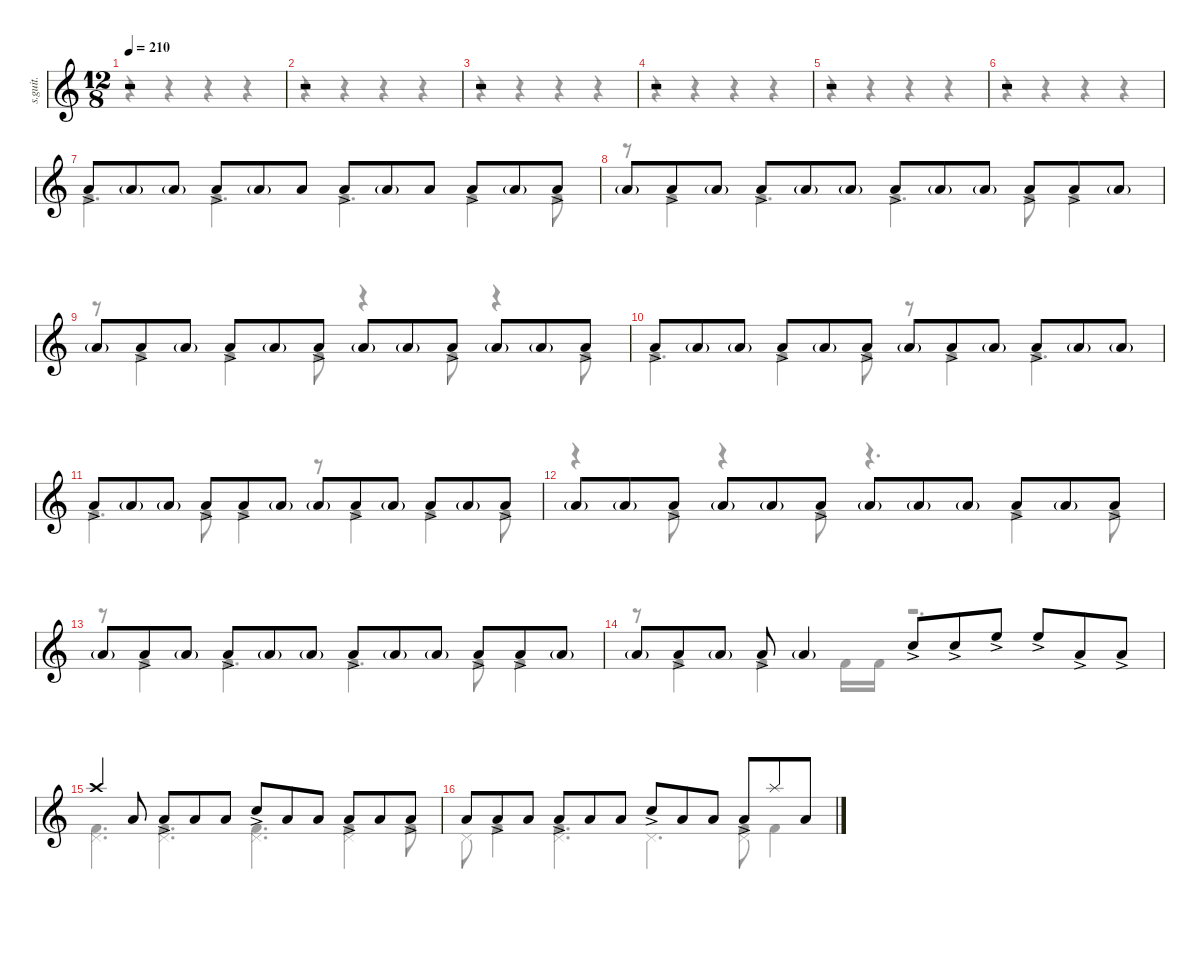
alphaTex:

\defaultSystemsLayout 4
\hideDynamics
\bracketExtendMode nobrackets
\track ("Percussion" "s.guit.") {instrument percussion}
\staff {score}
\articulation defaults
\voice
\ts (12 8)
\tempo 210
\clef g2
\ks c
r.2{dy mp} |
r.2 |
r.2 |
r.2 |
r.2 |
r.2 |
"Low Tom (hit)"{ac}.8{lyrics (0 "") lyrics (1 "") lyrics (2 "") lyrics (3 "") lyrics (4 "")} "Low Tom (hit)"{g}.8{lyrics (0 "") lyrics (1 "") lyrics (2 "") lyrics (3 "") lyrics (4 "") dy f} "Low Tom (hit)"{g}.8{lyrics (0 "") lyrics (1 "") lyrics (2 "") lyrics (3 "") lyrics (4 "")} "Low Tom (hit)"{ac}.8{lyrics (0 "") lyrics (1 "") lyrics (2 "") lyrics (3 "") lyrics (4 "") dy mp} "Low Tom (hit)"{g}.8{lyrics (0 "") lyrics (1 "") lyrics (2 "") lyrics (3 "") lyrics (4 "") dy f} "Low Tom (hit)".8{lyrics (0 "") lyrics (1 "") lyrics (2 "") lyrics (3 "") lyrics (4 "") dy mf} "Low Tom (hit)"{ac}.8{lyrics (0 "") lyrics (1 "") lyrics (2 "") lyrics (3 "") lyrics (4 "") dy mp} "Low Tom (hit)"{g}.8{lyrics (0 "") lyrics (1 "") lyrics (2 "") lyrics (3 "") lyrics (4 "") dy f} "Low Tom (hit)".8{lyrics (0 "") lyrics (1 "") lyrics (2 "") lyrics (3 "") lyrics (4 "") dy mf} "Low Tom (hit)"{ac}.8{lyrics (0 "") lyrics (1 "") lyrics (2 "") lyrics (3 "") lyrics (4 "") dy mp} "Low Tom (hit)"{g}.8{lyrics (0 "") lyrics (1 "") lyrics (2 "") lyrics (3 "") lyrics (4 "") dy f} "Low Tom (hit)"{ac}.8{lyrics (0 "") lyrics (1 "") lyrics (2 "") lyrics (3 "") lyrics (4 "") dy mp} |
"Low Tom (hit)"{g}.8{lyrics (0 "") lyrics (1 "") lyrics (2 "") lyrics (3 "") lyrics (4 "") dy f} "Low Tom (hit)"{ac}.8{lyrics (0 "") lyrics (1 "") lyrics (2 "") lyrics (3 "") lyrics (4 "") dy mp} "Low Tom (hit)"{g}.8{lyrics (0 "") lyrics (1 "") lyrics (2 "") lyrics (3 "") lyrics (4 "") dy f} "Low Tom (hit)"{ac}.8{lyrics (0 "") lyrics (1 "") lyrics (2 "") lyrics (3 "") lyrics (4 "") dy mp} "Low Tom (hit)"{g}.8{lyrics (0 "") lyrics (1 "") lyrics (2 "") lyrics (3 "") lyrics (4 "") dy f} "Low Tom (hit)"{g}.8{lyrics (0 "") lyrics (1 "") lyrics (2 "") lyrics (3 "") lyrics (4 "")} "Low Tom (hit)"{ac}.8{lyrics (0 "") lyrics (1 "") lyrics (2 "") lyrics (3 "") lyrics (4 "") dy mp} "Low Tom (hit)"{g}.8{lyrics (0 "") lyrics (1 "") lyrics (2 "") lyrics (3 "") lyrics (4 "") dy f} "Low Tom (hit)"{g}.8{lyrics (0 "") lyrics (1 "") lyrics (2 "") lyrics (3 "") lyrics (4 "")} "Low Tom (hit)"{ac}.8{lyrics (0 "") lyrics (1 "") lyrics (2 "") lyrics (3 "") lyrics (4 "") dy mp} "Low Tom (hit)"{ac}.8{lyrics (0 "") lyrics (1 "") lyrics (2 "") lyrics (3 "") lyrics (4 "")} "Low Tom (hit)"{g}.8{lyrics (0 "") lyrics (1 "") lyrics (2 "") lyrics (3 "") lyrics (4 "") dy f} |
"Low Tom (hit)"{g}.8{lyrics (0 "") lyrics (1 "") lyrics (2 "") lyrics (3 "") lyrics (4 "")} "Low Tom (hit)"{ac}.8{lyrics (0 "") lyrics (1 "") lyrics (2 "") lyrics (3 "") lyrics (4 "") dy mp} "Low Tom (hit)"{g}.8{lyrics (0 "") lyrics (1 "") lyrics (2 "") lyrics (3 "") lyrics (4 "") dy f} "Low Tom (hit)"{ac}.8{lyrics (0 "") lyrics (1 "") lyrics (2 "") lyrics (3 "") lyrics (4 "") dy mp} "Low Tom (hit)"{g}.8{lyrics (0 "") lyrics (1 "") lyrics (2 "") lyrics (3 "") lyrics (4 "") dy f} "Low Tom (hit)"{ac}.8{lyrics (0 "") lyrics (1 "") lyrics (2 "") lyrics (3 "") lyrics (4 "") dy mp} "Low Tom (hit)"{g}.8{lyrics (0 "") lyrics (1 "") lyrics (2 "") lyrics (3 "") lyrics (4 "") dy f} "Low Tom (hit)"{g}.8{lyrics (0 "") lyrics (1 "") lyrics (2 "") lyrics (3 "") lyrics (4 "")} "Low Tom (hit)"{ac}.8{lyrics (0 "") lyrics (1 "") lyrics (2 "") lyrics (3 "") lyrics (4 "") dy mp} "Low Tom (hit)"{g}.8{lyrics (0 "") lyrics (1 "") lyrics (2 "") lyrics (3 "") lyrics (4 "") dy f} "Low Tom (hit)"{g}.8{lyrics (0 "") lyrics (1 "") lyrics (2 "") lyrics (3 "") lyrics (4 "")} "Low Tom (hit)"{ac}.8{lyrics (0 "") lyrics (1 "") lyrics (2 "") lyrics (3 "") lyrics (4 "") dy mp} |
"Low Tom (hit)"{ac}.8{lyrics (0 "") lyrics (1 "") lyrics (2 "") lyrics (3 "") lyrics (4 "")} "Low Tom (hit)"{g}.8{lyrics (0 "") lyrics (1 "") lyrics (2 "") lyrics (3 "") lyrics (4 "") dy f} "Low Tom (hit)"{g}.8{lyrics (0 "") lyrics (1 "") lyrics (2 "") lyrics (3 "") lyrics (4 "")} "Low Tom (hit)"{ac}.8{lyrics (0 "") lyrics (1 "") lyrics (2 "") lyrics (3 "") lyrics (4 "") dy mp} "Low Tom (hit)"{g}.8{lyrics (0 "") lyrics (1 "") lyrics (2 "") lyrics (3 "") lyrics (4 "") dy f} "Low Tom (hit)"{ac}.8{lyrics (0 "") lyrics (1 "") lyrics (2 "") lyrics (3 "") lyrics (4 "") dy mp} "Low Tom (hit)"{g}.8{lyrics (0 "") lyrics (1 "") lyrics (2 "") lyrics (3 "") lyrics (4 "") dy f} "Low Tom (hit)"{ac}.8{lyrics (0 "") lyrics (1 "") lyrics (2 "") lyrics (3 "") lyrics (4 "") dy mp} "Low Tom (hit)"{g}.8{lyrics (0 "") lyrics (1 "") lyrics (2 "") lyrics (3 "") lyrics (4 "") dy f} "Low Tom (hit)"{ac}.8{lyrics (0 "") lyrics (1 "") lyrics (2 "") lyrics (3 "") lyrics (4 "") dy mp} "Low Tom (hit)"{g}.8{lyrics (0 "") lyrics (1 "") lyrics (2 "") lyrics (3 "") lyrics (4 "") dy f} "Low Tom (hit)"{g}.8{lyrics (0 "") lyrics (1 "") lyrics (2 "") lyrics (3 "") lyrics (4 "")} |
"Low Tom (hit)"{ac}.8{lyrics (0 "") lyrics (1 "") lyrics (2 "") lyrics (3 "") lyrics (4 "") dy mp} "Low Tom (hit)"{g}.8{lyrics (0 "") lyrics (1 "") lyrics (2 "") lyrics (3 "") lyrics (4 "") dy f} "Low Tom (hit)"{g}.8{lyrics (0 "") lyrics (1 "") lyrics (2 "") lyrics (3 "") lyrics (4 "")} "Low Tom (hit)"{ac}.8{lyrics (0 "") lyrics (1 "") lyrics (2 "") lyrics (3 "") lyrics (4 "") dy mp} "Low Tom (hit)"{ac}.8{lyrics (0 "") lyrics (1 "") lyrics (2 "") lyrics (3 "") lyrics (4 "")} "Low Tom (hit)"{g}.8{lyrics (0 "") lyrics (1 "") lyrics (2 "") lyrics (3 "") lyrics (4 "") dy f} "Low Tom (hit)"{g}.8{lyrics (0 "") lyrics (1 "") lyrics (2 "") lyrics (3 "") lyrics (4 "")} "Low Tom (hit)"{ac}.8{lyrics (0 "") lyrics (1 "") lyrics (2 "") lyrics (3 "") lyrics (4 "") dy mp} "Low Tom (hit)"{g}.8{lyrics (0 "") lyrics (1 "") lyrics (2 "") lyrics (3 "") lyrics (4 "") dy f} "Low Tom (hit)"{ac}.8{lyrics (0 "") lyrics (1 "") lyrics (2 "") lyrics (3 "") lyrics (4 "") dy mp} "Low Tom (hit)"{g}.8{lyrics (0 "") lyrics (1 "") lyrics (2 "") lyrics (3 "") lyrics (4 "") dy f} "Low Tom (hit)"{ac}.8{lyrics (0 "") lyrics (1 "") lyrics (2 "") lyrics (3 "") lyrics (4 "") dy mp} |
"Low Tom (hit)"{g}.8{lyrics (0 "") lyrics (1 "") lyrics (2 "") lyrics (3 "") lyrics (4 "") dy f} "Low Tom (hit)"{g}.8{lyrics (0 "") lyrics (1 "") lyrics (2 "") lyrics (3 "") lyrics (4 "")} "Low Tom (hit)"{ac}.8{lyrics (0 "") lyrics (1 "") lyrics (2 "") lyrics (3 "") lyrics (4 "") dy mp} "Low Tom (hit)"{g}.8{lyrics (0 "") lyrics (1 "") lyrics (2 "") lyrics (3 "") lyrics (4 "") dy f} "Low Tom (hit)"{g}.8{lyrics (0 "") lyrics (1 "") lyrics (2 "") lyrics (3 "") lyrics (4 "")} "Low Tom (hit)"{ac}.8{lyrics (0 "") lyrics (1 "") lyrics (2 "") lyrics (3 "") lyrics (4 "") dy mp} "Low Tom (hit)"{g}.8{lyrics (0 "") lyrics (1 "") lyrics (2 "") lyrics (3 "") lyrics (4 "") dy f} "Low Tom (hit)"{g}.8{lyrics (0 "") lyrics (1 "") lyrics (2 "") lyrics (3 "") lyrics (4 "")} "Low Tom (hit)"{g}.8{lyrics (0 "") lyrics (1 "") lyrics (2 "") lyrics (3 "") lyrics (4 "")} "Low Tom (hit)"{ac}.8{lyrics (0 "") lyrics (1 "") lyrics (2 "") lyrics (3 "") lyrics (4 "") dy mp} "Low Tom (hit)"{g}.8{lyrics (0 "") lyrics (1 "") lyrics (2 "") lyrics (3 "") lyrics (4 "") dy f} "Low Tom (hit)"{ac}.8{lyrics (0 "") lyrics (1 "") lyrics (2 "") lyrics (3 "") lyrics (4 "") dy mp} |
"Low Tom (hit)"{g}.8{lyrics (0 "") lyrics (1 "") lyrics (2 "") lyrics (3 "") lyrics (4 "") dy f} "Low Tom (hit)"{ac}.8{lyrics (0 "") lyrics (1 "") lyrics (2 "") lyrics (3 "") lyrics (4 "") dy mp} "Low Tom (hit)"{g}.8{lyrics (0 "") lyrics (1 "") lyrics (2 "") lyrics (3 "") lyrics (4 "") dy f} "Low Tom (hit)"{ac}.8{lyrics (0 "") lyrics (1 "") lyrics (2 "") lyrics (3 "") lyrics (4 "") dy mp} "Low Tom (hit)"{g}.8{lyrics (0 "") lyrics (1 "") lyrics (2 "") lyrics (3 "") lyrics (4 "") dy f} "Low Tom (hit)"{g}.8{lyrics (0 "") lyrics (1 "") lyrics (2 "") lyrics (3 "") lyrics (4 "")} "Low Tom (hit)"{ac}.8{lyrics (0 "") lyrics (1 "") lyrics (2 "") lyrics (3 "") lyrics (4 "") dy mp} "Low Tom (hit)"{g}.8{lyrics (0 "") lyrics (1 "") lyrics (2 "") lyrics (3 "") lyrics (4 "") dy f} "Low Tom (hit)"{g}.8{lyrics (0 "") lyrics (1 "") lyrics (2 "") lyrics (3 "") lyrics (4 "")} "Low Tom (hit)"{ac}.8{lyrics (0 "") lyrics (1 "") lyrics (2 "") lyrics (3 "") lyrics (4 "") dy mp} "Low Tom (hit)"{ac}.8{lyrics (0 "") lyrics (1 "") lyrics (2 "") lyrics (3 "") lyrics (4 "")} "Low Tom (hit)"{g}.8{lyrics (0 "") lyrics (1 "") lyrics (2 "") lyrics (3 "") lyrics (4 "") dy f} |
"Low Tom (hit)"{g}.8{lyrics (0 "") lyrics (1 "") lyrics (2 "") lyrics (3 "") lyrics (4 "")} "Low Tom (hit)"{ac}.8{lyrics (0 "") lyrics (1 "") lyrics (2 "") lyrics (3 "") lyrics (4 "") dy mp} "Low Tom (hit)"{g}.8{lyrics (0 "") lyrics (1 "") lyrics (2 "") lyrics (3 "") lyrics (4 "") dy f} "Low Tom (hit)"{ac}.8{lyrics (0 "") lyrics (1 "") lyrics (2 "") lyrics (3 "") lyrics (4 "") dy mp} "Low Tom (hit)"{g}.4{lyrics (0 "") lyrics (1 "") lyrics (2 "") lyrics (3 "") lyrics (4 "") dy f} "Snare (hit) 2"{ac}.8{lyrics (0 "") lyrics (1 "") lyrics (2 "") lyrics (3 "") lyrics (4 "") dy mp} "Snare (hit) 2"{ac}.8{lyrics (0 "") lyrics (1 "") lyrics (2 "") lyrics (3 "") lyrics (4 "")} "High Floor Tom (hit)"{ac}.8{lyrics (0 "") lyrics (1 "") lyrics (2 "") lyrics (3 "") lyrics (4 "")} "High Floor Tom (hit)"{ac}.8{lyrics (0 "") lyrics (1 "") lyrics (2 "") lyrics (3 "") lyrics (4 "")} "Low Tom (hit)"{ac}.8{lyrics (0 "") lyrics (1 "") lyrics (2 "") lyrics (3 "") lyrics (4 "")} "Low Tom (hit)"{ac}.8{lyrics (0 "") lyrics (1 "") lyrics (2 "") lyrics (3 "") lyrics (4 "")} |
"Crash high (hit)".4{lyrics (0 "") lyrics (1 "") lyrics (2 "") lyrics (3 "") lyrics (4 "") dy f} "Low Tom (hit)".8{lyrics (0 "") lyrics (1 "") lyrics (2 "") lyrics (3 "") lyrics (4 "")} "Low Tom (hit)"{ac}.8{lyrics (0 "") lyrics (1 "") lyrics (2 "") lyrics (3 "") lyrics (4 "") dy mf} "Low Tom (hit)".8{lyrics (0 "") lyrics (1 "") lyrics (2 "") lyrics (3 "") lyrics (4 "") dy f} "Low Tom (hit)".8{lyrics (0 "") lyrics (1 "") lyrics (2 "") lyrics (3 "") lyrics (4 "")} "Snare (hit) 2"{ac}.8{lyrics (0 "") lyrics (1 "") lyrics (2 "") lyrics (3 "") lyrics (4 "") dy mf} "Low Tom (hit)".8{lyrics (0 "") lyrics (1 "") lyrics (2 "") lyrics (3 "") lyrics (4 "") dy f} "Low Tom (hit)".8{lyrics (0 "") lyrics (1 "") lyrics (2 "") lyrics (3 "") lyrics (4 "")} "Low Tom (hit)"{ac}.8{lyrics (0 "") lyrics (1 "") lyrics (2 "") lyrics (3 "") lyrics (4 "") dy mf} "Low Tom (hit)".8{lyrics (0 "") lyrics (1 "") lyrics (2 "") lyrics (3 "") lyrics (4 "") dy f} "Low Tom (hit)"{ac}.8{lyrics (0 "") lyrics (1 "") lyrics (2 "") lyrics (3 "") lyrics (4 "") dy mf} |
"Low Tom (hit)".8{lyrics (0 "") lyrics (1 "") lyrics (2 "") lyrics (3 "") lyrics (4 "") dy f} "Low Tom (hit)"{ac}.8{lyrics (0 "") lyrics (1 "") lyrics (2 "") lyrics (3 "") lyrics (4 "") dy mf} "Low Tom (hit)".8{lyrics (0 "") lyrics (1 "") lyrics (2 "") lyrics (3 "") lyrics (4 "") dy f} "Low Tom (hit)"{ac}.8{lyrics (0 "") lyrics (1 "") lyrics (2 "") lyrics (3 "") lyrics (4 "") dy mf} "Low Tom (hit)".8{lyrics (0 "") lyrics (1 "") lyrics (2 "") lyrics (3 "") lyrics (4 "") dy f} "Low Tom (hit)".8{lyrics (0 "") lyrics (1 "") lyrics (2 "") lyrics (3 "") lyrics (4 "")} "Snare (hit) 2"{ac}.8{lyrics (0 "") lyrics (1 "") lyrics (2 "") lyrics (3 "") lyrics (4 "") dy mf} "Low Tom (hit)".8{lyrics (0 "") lyrics (1 "") lyrics (2 "") lyrics (3 "") lyrics (4 "") dy f} "Low Tom (hit)".8{lyrics (0 "") lyrics (1 "") lyrics (2 "") lyrics (3 "") lyrics (4 "")} "Low Tom (hit)"{ac}.8{lyrics (0 "") lyrics (1 "") lyrics (2 "") lyrics (3 "") lyrics (4 "") dy mf} "Splash (hit)".8{lyrics (0 "") lyrics (1 "") lyrics (2 "") lyrics (3 "") lyrics (4 "") dy f} "Low Tom (hit)".8{lyrics (0 "") lyrics (1 "") lyrics (2 "") lyrics (3 "") lyrics (4 "")}
\voice
\clef g2
\ottava regular
\simile none
\ks c
r.4{dy mf} r.4 r.4 r.4 |
r.4 r.4 r.4 r.4 |
r.4 r.4 r.4 r.4 |
r.4 r.4 r.4 r.4 |
r.4 r.4 r.4 r.4 |
r.4 r.4 r.4 r.4 |
"Kick (hit) 2".4{d lyrics (0 "") lyrics (1 "") lyrics (2 "") lyrics (3 "") lyrics (4 "")} "Kick (hit) 2".4{d lyrics (0 "") lyrics (1 "") lyrics (2 "") lyrics (3 "") lyrics (4 "")} "Kick (hit) 2".4{d lyrics (0 "") lyrics (1 "") lyrics (2 "") lyrics (3 "") lyrics (4 "")} "Kick (hit) 2".4{lyrics (0 "") lyrics (1 "") lyrics (2 "") lyrics (3 "") lyrics (4 "")} "Kick (hit) 2".8{lyrics (0 "") lyrics (1 "") lyrics (2 "") lyrics (3 "") lyrics (4 "")} |
r.8 "Kick (hit) 2".4{lyrics (0 "") lyrics (1 "") lyrics (2 "") lyrics (3 "") lyrics (4 "")} "Kick (hit) 2".4{d lyrics (0 "") lyrics (1 "") lyrics (2 "") lyrics (3 "") lyrics (4 "")} "Kick (hit) 2".4{d lyrics (0 "") lyrics (1 "") lyrics (2 "") lyrics (3 "") lyrics (4 "")} "Kick (hit) 2".8{lyrics (0 "") lyrics (1 "") lyrics (2 "") lyrics (3 "") lyrics (4 "")} "Kick (hit) 2".4{lyrics (0 "") lyrics (1 "") lyrics (2 "") lyrics (3 "") lyrics (4 "")} |
r.8 "Kick (hit) 2".4{lyrics (0 "") lyrics (1 "") lyrics (2 "") lyrics (3 "") lyrics (4 "")} "Kick (hit) 2".4{lyrics (0 "") lyrics (1 "") lyrics (2 "") lyrics (3 "") lyrics (4 "")} "Kick (hit) 2".8{lyrics (0 "") lyrics (1 "") lyrics (2 "") lyrics (3 "") lyrics (4 "")} r.4 "Kick (hit) 2".8{lyrics (0 "") lyrics (1 "") lyrics (2 "") lyrics (3 "") lyrics (4 "")} r.4 "Kick (hit) 2".8{lyrics (0 "") lyrics (1 "") lyrics (2 "") lyrics (3 "") lyrics (4 "")} |
"Kick (hit) 2".4{d lyrics (0 "") lyrics (1 "") lyrics (2 "") lyrics (3 "") lyrics (4 "")} "Kick (hit) 2".4{lyrics (0 "") lyrics (1 "") lyrics (2 "") lyrics (3 "") lyrics (4 "")} "Kick (hit) 2".8{lyrics (0 "") lyrics (1 "") lyrics (2 "") lyrics (3 "") lyrics (4 "")} r.8 "Kick (hit) 2".4{lyrics (0 "") lyrics (1 "") lyrics (2 "") lyrics (3 "") lyrics (4 "")} "Kick (hit) 2".4{d lyrics (0 "") lyrics (1 "") lyrics (2 "") lyrics (3 "") lyrics (4 "")} |
"Kick (hit) 2".4{d lyrics (0 "") lyrics (1 "") lyrics (2 "") lyrics (3 "") lyrics (4 "")} "Kick (hit) 2".8{lyrics (0 "") lyrics (1 "") lyrics (2 "") lyrics (3 "") lyrics (4 "")} "Kick (hit) 2".4{lyrics (0 "") lyrics (1 "") lyrics (2 "") lyrics (3 "") lyrics (4 "")} r.8 "Kick (hit) 2".4{lyrics (0 "") lyrics (1 "") lyrics (2 "") lyrics (3 "") lyrics (4 "")} "Kick (hit) 2".4{lyrics (0 "") lyrics (1 "") lyrics (2 "") lyrics (3 "") lyrics (4 "")} "Kick (hit) 2".8{lyrics (0 "") lyrics (1 "") lyrics (2 "") lyrics (3 "") lyrics (4 "")} |
r.4 "Kick (hit) 2".8{lyrics (0 "") lyrics (1 "") lyrics (2 "") lyrics (3 "") lyrics (4 "")} r.4 "Kick (hit) 2".8{lyrics (0 "") lyrics (1 "") lyrics (2 "") lyrics (3 "") lyrics (4 "")} r.4{d} "Kick (hit) 2".4{lyrics (0 "") lyrics (1 "") lyrics (2 "") lyrics (3 "") lyrics (4 "")} "Kick (hit) 2".8{lyrics (0 "") lyrics (1 "") lyrics (2 "") lyrics (3 "") lyrics (4 "")} |
r.8 "Kick (hit) 2".4{lyrics (0 "") lyrics (1 "") lyrics (2 "") lyrics (3 "") lyrics (4 "")} "Kick (hit) 2".4{d lyrics (0 "") lyrics (1 "") lyrics (2 "") lyrics (3 "") lyrics (4 "")} "Kick (hit) 2".4{d lyrics (0 "") lyrics (1 "") lyrics (2 "") lyrics (3 "") lyrics (4 "")} "Kick (hit) 2".8{lyrics (0 "") lyrics (1 "") lyrics (2 "") lyrics (3 "") lyrics (4 "")} "Kick (hit) 2".4{lyrics (0 "") lyrics (1 "") lyrics (2 "") lyrics (3 "") lyrics (4 "")} |
r.8 "Kick (hit) 2".4{lyrics (0 "") lyrics (1 "") lyrics (2 "") lyrics (3 "") lyrics (4 "")} "Kick (hit) 2".4{lyrics (0 "") lyrics (1 "") lyrics (2 "") lyrics (3 "") lyrics (4 "")} "Kick (hit) 2".16{lyrics (0 "") lyrics (1 "") lyrics (2 "") lyrics (3 "") lyrics (4 "")} "Kick (hit) 2".16{lyrics (0 "") lyrics (1 "") lyrics (2 "") lyrics (3 "") lyrics (4 "")} r.2{d} |
("Kick (hit) 2" "Pedal Hi-Hat (hit)").4{d lyrics (0 "") lyrics (1 "") lyrics (2 "") lyrics (3 "") lyrics (4 "") dy f} ("Kick (hit) 2" "Pedal Hi-Hat (hit)").4{d lyrics (0 "") lyrics (1 "") lyrics (2 "") lyrics (3 "") lyrics (4 "")} ("Kick (hit) 2" "Pedal Hi-Hat (hit)").4{d lyrics (0 "") lyrics (1 "") lyrics (2 "") lyrics (3 "") lyrics (4 "")} ("Kick (hit) 2" "Pedal Hi-Hat (hit)").4{lyrics (0 "") lyrics (1 "") lyrics (2 "") lyrics (3 "") lyrics (4 "")} "Kick (hit) 2".8{lyrics (0 "") lyrics (1 "") lyrics (2 "") lyrics (3 "") lyrics (4 "")} |
"Pedal Hi-Hat (hit)".8{lyrics (0 "") lyrics (1 "") lyrics (2 "") lyrics (3 "") lyrics (4 "")} "Kick (hit) 2".4{lyrics (0 "") lyrics (1 "") lyrics (2 "") lyrics (3 "") lyrics (4 "")} ("Kick (hit) 2" "Pedal Hi-Hat (hit)").4{d lyrics (0 "") lyrics (1 "") lyrics (2 "") lyrics (3 "") lyrics (4 "")} "Pedal Hi-Hat (hit)".4{d lyrics (0 "") lyrics (1 "") lyrics (2 "") lyrics (3 "") lyrics (4 "")} ("Kick (hit) 2" "Pedal Hi-Hat (hit)").8{lyrics (0 "") lyrics (1 "") lyrics (2 "") lyrics (3 "") lyrics (4 "")} "Kick (hit) 2".4{lyrics (0 "") lyrics (1 "") lyrics (2 "") lyrics (3 "") lyrics (4 "")}
